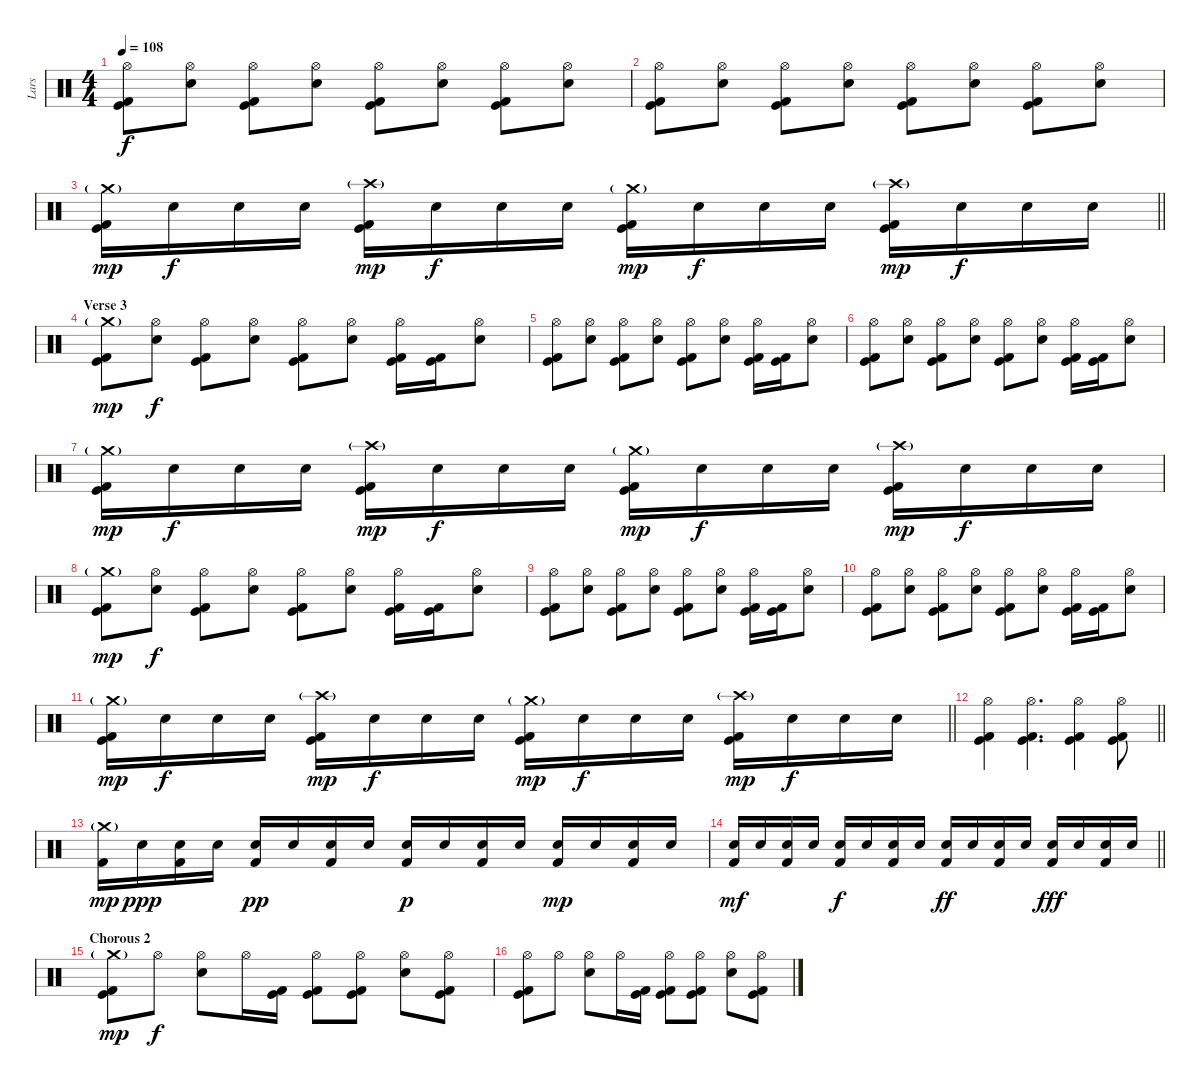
\track ("Lars" "Lars") {instrument percussion}
\staff {score}
\articulation defaults
\ts (4 4)
\tempo 108
\clef neutral
\ks c
("Hi-Hat (open)" "Kick (hit)" "Kick (hit) 2").8{dy f} ("Hi-Hat (open)" "Electric Snare (hit)").8 ("Hi-Hat (open)" "Kick (hit)" "Kick (hit) 2").8 ("Hi-Hat (open)" "Electric Snare (hit)").8 ("Hi-Hat (open)" "Kick (hit)" "Kick (hit) 2").8 ("Hi-Hat (open)" "Electric Snare (hit)").8 ("Hi-Hat (open)" "Kick (hit)" "Kick (hit) 2").8 ("Hi-Hat (open)" "Electric Snare (hit)").8 |
("Hi-Hat (open)" "Kick (hit)" "Kick (hit) 2").8 ("Hi-Hat (open)" "Electric Snare (hit)").8 ("Hi-Hat (open)" "Kick (hit)" "Kick (hit) 2").8 ("Hi-Hat (open)" "Electric Snare (hit)").8 ("Hi-Hat (open)" "Kick (hit)" "Kick (hit) 2").8 ("Hi-Hat (open)" "Electric Snare (hit)").8 ("Hi-Hat (open)" "Kick (hit)" "Kick (hit) 2").8 ("Hi-Hat (open)" "Electric Snare (hit)").8 |
\barLineRight lightlight
("Crash medium (hit)"{g} "Kick (hit)" "Kick (hit) 2").16{dy mp} "Electric Snare (hit)".16{dy f} "Electric Snare (hit)".16 "Electric Snare (hit)".16 ("Crash high (hit)"{g} "Kick (hit)" "Kick (hit) 2").16{dy mp} "Electric Snare (hit)".16{dy f} "Electric Snare (hit)".16 "Electric Snare (hit)".16 ("Crash medium (hit)"{g} "Kick (hit)" "Kick (hit) 2").16{dy mp} "Electric Snare (hit)".16{dy f} "Electric Snare (hit)".16 "Electric Snare (hit)".16 ("Crash high (hit)"{g} "Kick (hit)" "Kick (hit) 2").16{dy mp} "Electric Snare (hit)".16{dy f} "Electric Snare (hit)".16 "Electric Snare (hit)".16 |
\section ("" "Verse 3")
("Crash medium (hit)"{g} "Kick (hit)" "Kick (hit) 2").8{dy mp} ("Hi-Hat (open)" "Electric Snare (hit)").8{dy f} ("Hi-Hat (open)" "Kick (hit)" "Kick (hit) 2").8 ("Hi-Hat (open)" "Electric Snare (hit)").8 ("Hi-Hat (open)" "Kick (hit)" "Kick (hit) 2").8 ("Hi-Hat (open)" "Electric Snare (hit)").8 ("Hi-Hat (open)" "Kick (hit)" "Kick (hit) 2").16 ("Kick (hit)" "Kick (hit) 2").16 ("Hi-Hat (open)" "Electric Snare (hit)").8 |
("Hi-Hat (open)" "Kick (hit)" "Kick (hit) 2").8 ("Hi-Hat (open)" "Electric Snare (hit)").8 ("Hi-Hat (open)" "Kick (hit)" "Kick (hit) 2").8 ("Hi-Hat (open)" "Electric Snare (hit)").8 ("Hi-Hat (open)" "Kick (hit)" "Kick (hit) 2").8 ("Hi-Hat (open)" "Electric Snare (hit)").8 ("Hi-Hat (open)" "Kick (hit)" "Kick (hit) 2").16 ("Kick (hit)" "Kick (hit) 2").16 ("Hi-Hat (open)" "Electric Snare (hit)").8 |
("Hi-Hat (open)" "Kick (hit)" "Kick (hit) 2").8 ("Hi-Hat (open)" "Electric Snare (hit)").8 ("Hi-Hat (open)" "Kick (hit)" "Kick (hit) 2").8 ("Hi-Hat (open)" "Electric Snare (hit)").8 ("Hi-Hat (open)" "Kick (hit)" "Kick (hit) 2").8 ("Hi-Hat (open)" "Electric Snare (hit)").8 ("Hi-Hat (open)" "Kick (hit)" "Kick (hit) 2").16 ("Kick (hit)" "Kick (hit) 2").16 ("Hi-Hat (open)" "Electric Snare (hit)").8 |
("Crash medium (hit)"{g} "Kick (hit)" "Kick (hit) 2").16{dy mp} "Electric Snare (hit)".16{dy f} "Electric Snare (hit)".16 "Electric Snare (hit)".16 ("Crash high (hit)"{g} "Kick (hit)" "Kick (hit) 2").16{dy mp} "Electric Snare (hit)".16{dy f} "Electric Snare (hit)".16 "Electric Snare (hit)".16 ("Crash medium (hit)"{g} "Kick (hit)" "Kick (hit) 2").16{dy mp} "Electric Snare (hit)".16{dy f} "Electric Snare (hit)".16 "Electric Snare (hit)".16 ("Crash high (hit)"{g} "Kick (hit)" "Kick (hit) 2").16{dy mp} "Electric Snare (hit)".16{dy f} "Electric Snare (hit)".16 "Electric Snare (hit)".16 |
("Crash medium (hit)"{g} "Kick (hit)" "Kick (hit) 2").8{dy mp} ("Hi-Hat (open)" "Electric Snare (hit)").8{dy f} ("Hi-Hat (open)" "Kick (hit)" "Kick (hit) 2").8 ("Hi-Hat (open)" "Electric Snare (hit)").8 ("Hi-Hat (open)" "Kick (hit)" "Kick (hit) 2").8 ("Hi-Hat (open)" "Electric Snare (hit)").8 ("Hi-Hat (open)" "Kick (hit)" "Kick (hit) 2").16 ("Kick (hit)" "Kick (hit) 2").16 ("Hi-Hat (open)" "Electric Snare (hit)").8 |
("Hi-Hat (open)" "Kick (hit)" "Kick (hit) 2").8 ("Hi-Hat (open)" "Electric Snare (hit)").8 ("Hi-Hat (open)" "Kick (hit)" "Kick (hit) 2").8 ("Hi-Hat (open)" "Electric Snare (hit)").8 ("Hi-Hat (open)" "Kick (hit)" "Kick (hit) 2").8 ("Hi-Hat (open)" "Electric Snare (hit)").8 ("Hi-Hat (open)" "Kick (hit)" "Kick (hit) 2").16 ("Kick (hit)" "Kick (hit) 2").16 ("Hi-Hat (open)" "Electric Snare (hit)").8 |
("Hi-Hat (open)" "Kick (hit)" "Kick (hit) 2").8 ("Hi-Hat (open)" "Electric Snare (hit)").8 ("Hi-Hat (open)" "Kick (hit)" "Kick (hit) 2").8 ("Hi-Hat (open)" "Electric Snare (hit)").8 ("Hi-Hat (open)" "Kick (hit)" "Kick (hit) 2").8 ("Hi-Hat (open)" "Electric Snare (hit)").8 ("Hi-Hat (open)" "Kick (hit)" "Kick (hit) 2").16 ("Kick (hit)" "Kick (hit) 2").16 ("Hi-Hat (open)" "Electric Snare (hit)").8 |
\barLineRight lightlight
("Crash medium (hit)"{g} "Kick (hit)" "Kick (hit) 2").16{dy mp} "Electric Snare (hit)".16{dy f} "Electric Snare (hit)".16 "Electric Snare (hit)".16 ("Crash high (hit)"{g} "Kick (hit)" "Kick (hit) 2").16{dy mp} "Electric Snare (hit)".16{dy f} "Electric Snare (hit)".16 "Electric Snare (hit)".16 ("Crash medium (hit)"{g} "Kick (hit)" "Kick (hit) 2").16{dy mp} "Electric Snare (hit)".16{dy f} "Electric Snare (hit)".16 "Electric Snare (hit)".16 ("Crash high (hit)"{g} "Kick (hit)" "Kick (hit) 2").16{dy mp} "Electric Snare (hit)".16{dy f} "Electric Snare (hit)".16 "Electric Snare (hit)".16 |
\barLineRight lightlight
("Hi-Hat (open)" "Kick (hit)" "Kick (hit) 2").4 ("Hi-Hat (open)" "Kick (hit)" "Kick (hit) 2").4{d} ("Hi-Hat (open)" "Kick (hit)" "Kick (hit) 2").4 ("Hi-Hat (open)" "Kick (hit)" "Kick (hit) 2").8 |
\section ("" "")
("Crash medium (hit)"{g} "Kick (hit) 2").16{dy mp} "Electric Snare (hit)".16{dy ppp} ("Electric Snare (hit)" "Kick (hit) 2").16 "Electric Snare (hit)".16 ("Electric Snare (hit)" "Kick (hit) 2").16{dy pp} "Electric Snare (hit)".16 ("Electric Snare (hit)" "Kick (hit) 2").16 "Electric Snare (hit)".16 ("Electric Snare (hit)" "Kick (hit) 2").16{dy p} "Electric Snare (hit)".16 ("Electric Snare (hit)" "Kick (hit) 2").16 "Electric Snare (hit)".16 ("Electric Snare (hit)" "Kick (hit) 2").16{dy mp} "Electric Snare (hit)".16 ("Electric Snare (hit)" "Kick (hit) 2").16 "Electric Snare (hit)".16 |
\barLineRight lightlight
("Electric Snare (hit)" "Kick (hit) 2").16{dy mf} "Electric Snare (hit)".16 ("Electric Snare (hit)" "Kick (hit) 2").16 "Electric Snare (hit)".16 ("Electric Snare (hit)" "Kick (hit) 2").16{dy f} "Electric Snare (hit)".16 ("Electric Snare (hit)" "Kick (hit) 2").16 "Electric Snare (hit)".16 ("Electric Snare (hit)" "Kick (hit) 2").16{dy ff} "Electric Snare (hit)".16 ("Electric Snare (hit)" "Kick (hit) 2").16 "Electric Snare (hit)".16 ("Electric Snare (hit)" "Kick (hit) 2").16{dy fff} "Electric Snare (hit)".16 ("Electric Snare (hit)" "Kick (hit) 2").16 "Electric Snare (hit)".16 |
\section ("" "Chorous 2")
("Crash medium (hit)"{g} "Kick (hit)" "Kick (hit) 2").8{dy mp} "Hi-Hat (open)".8{dy f} ("Hi-Hat (open)" "Electric Snare (hit)").8 "Hi-Hat (open)".16 ("Kick (hit)" "Kick (hit) 2").16 ("Hi-Hat (open)" "Kick (hit)" "Kick (hit) 2").8 ("Hi-Hat (open)" "Kick (hit)" "Kick (hit) 2").8 ("Hi-Hat (open)" "Electric Snare (hit)").8 ("Hi-Hat (open)" "Kick (hit)" "Kick (hit) 2").8 |
("Hi-Hat (open)" "Kick (hit)" "Kick (hit) 2").8 "Hi-Hat (open)".8 ("Hi-Hat (open)" "Electric Snare (hit)").8 "Hi-Hat (open)".16 ("Kick (hit)" "Kick (hit) 2").16 ("Hi-Hat (open)" "Kick (hit)" "Kick (hit) 2").8 ("Hi-Hat (open)" "Kick (hit)" "Kick (hit) 2").8 ("Hi-Hat (open)" "Electric Snare (hit)").8 ("Hi-Hat (open)" "Kick (hit)" "Kick (hit) 2").8
